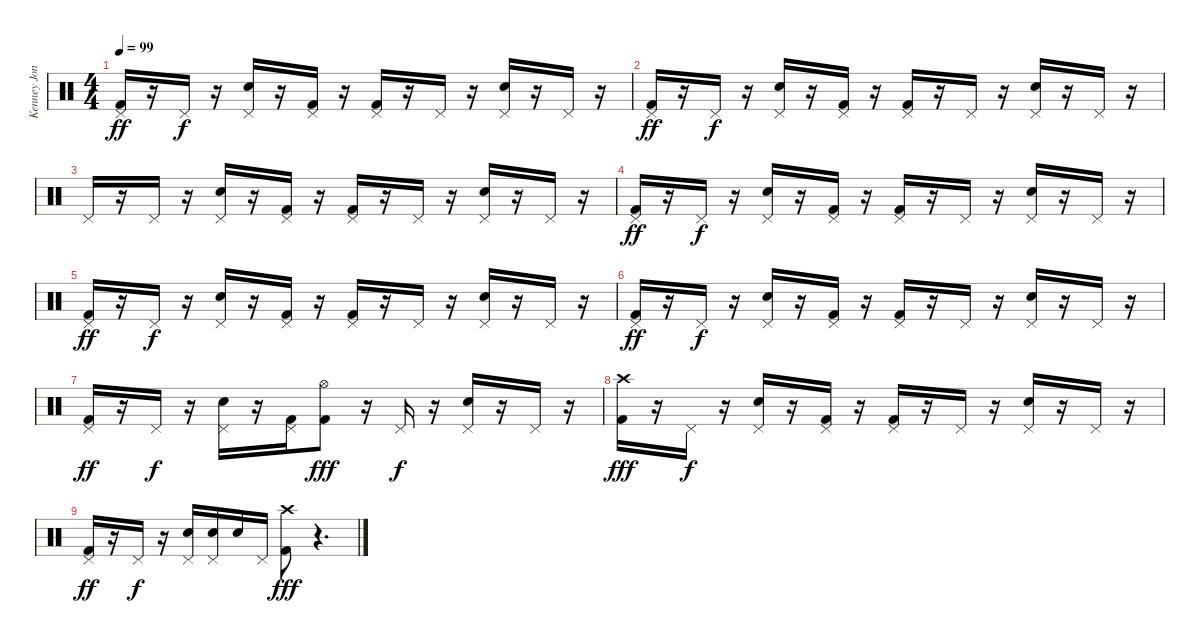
\track ("Kenney Jones" "Kenney Jon") {instrument percussion}
\staff {score}
\articulation defaults
\ts (4 4)
\tempo 99
\clef neutral
\ks c
("Pedal Hi-Hat (hit)" "Kick (hit) 2").16{dy ff} r.16 "Pedal Hi-Hat (hit)".16{dy f} r.16 ("Pedal Hi-Hat (hit)" "Snare (hit) 2").16 r.16 ("Pedal Hi-Hat (hit)" "Kick (hit) 2").16 r.16 ("Pedal Hi-Hat (hit)" "Kick (hit) 2").16 r.16 "Pedal Hi-Hat (hit)".16 r.16 ("Pedal Hi-Hat (hit)" "Snare (hit) 2").16 r.16 "Pedal Hi-Hat (hit)".16 r.16 |
("Pedal Hi-Hat (hit)" "Kick (hit) 2").16{dy ff} r.16 "Pedal Hi-Hat (hit)".16{dy f} r.16 ("Pedal Hi-Hat (hit)" "Snare (hit) 2").16 r.16 ("Pedal Hi-Hat (hit)" "Kick (hit) 2").16 r.16 ("Pedal Hi-Hat (hit)" "Kick (hit) 2").16 r.16 "Pedal Hi-Hat (hit)".16 r.16 ("Pedal Hi-Hat (hit)" "Snare (hit) 2").16 r.16 "Pedal Hi-Hat (hit)".16 r.16 |
"Pedal Hi-Hat (hit)".16 r.16 "Pedal Hi-Hat (hit)".16 r.16 ("Pedal Hi-Hat (hit)" "Snare (hit) 2").16 r.16 ("Pedal Hi-Hat (hit)" "Kick (hit) 2").16 r.16 ("Pedal Hi-Hat (hit)" "Kick (hit) 2").16 r.16 "Pedal Hi-Hat (hit)".16 r.16 ("Pedal Hi-Hat (hit)" "Snare (hit) 2").16 r.16 "Pedal Hi-Hat (hit)".16 r.16 |
("Pedal Hi-Hat (hit)" "Kick (hit) 2").16{dy ff} r.16 "Pedal Hi-Hat (hit)".16{dy f} r.16 ("Pedal Hi-Hat (hit)" "Snare (hit) 2").16 r.16 ("Pedal Hi-Hat (hit)" "Kick (hit) 2").16 r.16 ("Pedal Hi-Hat (hit)" "Kick (hit) 2").16 r.16 "Pedal Hi-Hat (hit)".16 r.16 ("Pedal Hi-Hat (hit)" "Snare (hit) 2").16 r.16 "Pedal Hi-Hat (hit)".16 r.16 |
("Pedal Hi-Hat (hit)" "Kick (hit) 2").16{dy ff} r.16 "Pedal Hi-Hat (hit)".16{dy f} r.16 ("Pedal Hi-Hat (hit)" "Snare (hit) 2").16 r.16 ("Pedal Hi-Hat (hit)" "Kick (hit) 2").16 r.16 ("Pedal Hi-Hat (hit)" "Kick (hit) 2").16 r.16 "Pedal Hi-Hat (hit)".16 r.16 ("Pedal Hi-Hat (hit)" "Snare (hit) 2").16 r.16 "Pedal Hi-Hat (hit)".16 r.16 |
("Pedal Hi-Hat (hit)" "Kick (hit) 2").16{dy ff} r.16 "Pedal Hi-Hat (hit)".16{dy f} r.16 ("Pedal Hi-Hat (hit)" "Snare (hit) 2").16 r.16 ("Pedal Hi-Hat (hit)" "Kick (hit) 2").16 r.16 ("Pedal Hi-Hat (hit)" "Kick (hit) 2").16 r.16 "Pedal Hi-Hat (hit)".16 r.16 ("Pedal Hi-Hat (hit)" "Snare (hit) 2").16 r.16 "Pedal Hi-Hat (hit)".16 r.16 |
("Pedal Hi-Hat (hit)" "Kick (hit) 2").16{dy ff} r.16 "Pedal Hi-Hat (hit)".16{dy f} r.16 ("Pedal Hi-Hat (hit)" "Snare (hit) 2").16 r.16 ("Pedal Hi-Hat (hit)" "Kick (hit) 2").16 ("Hi-Hat (open)" "Kick (hit) 2").8{dy fff} r.16 "Pedal Hi-Hat (hit)".16{dy f} r.16 ("Pedal Hi-Hat (hit)" "Snare (hit) 2").16 r.16 "Pedal Hi-Hat (hit)".16 r.16 |
("Crash high (hit)" "Kick (hit) 2").16{dy fff} r.16 "Pedal Hi-Hat (hit)".16{dy f} r.16 ("Pedal Hi-Hat (hit)" "Snare (hit) 2").16 r.16 ("Pedal Hi-Hat (hit)" "Kick (hit) 2").16 r.16 ("Pedal Hi-Hat (hit)" "Kick (hit) 2").16 r.16 "Pedal Hi-Hat (hit)".16 r.16 ("Pedal Hi-Hat (hit)" "Snare (hit) 2").16 r.16 "Pedal Hi-Hat (hit)".16 r.16 |
("Pedal Hi-Hat (hit)" "Kick (hit) 2").16{dy ff} r.16 "Pedal Hi-Hat (hit)".16{dy f} r.16 ("Pedal Hi-Hat (hit)" "Snare (hit) 2").16 ("Pedal Hi-Hat (hit)" "Snare (hit) 2").16 "Snare (hit) 2".16 "Pedal Hi-Hat (hit)".16 ("Crash high (hit)" "Kick (hit) 2").8{dy fff} r.4{d}
